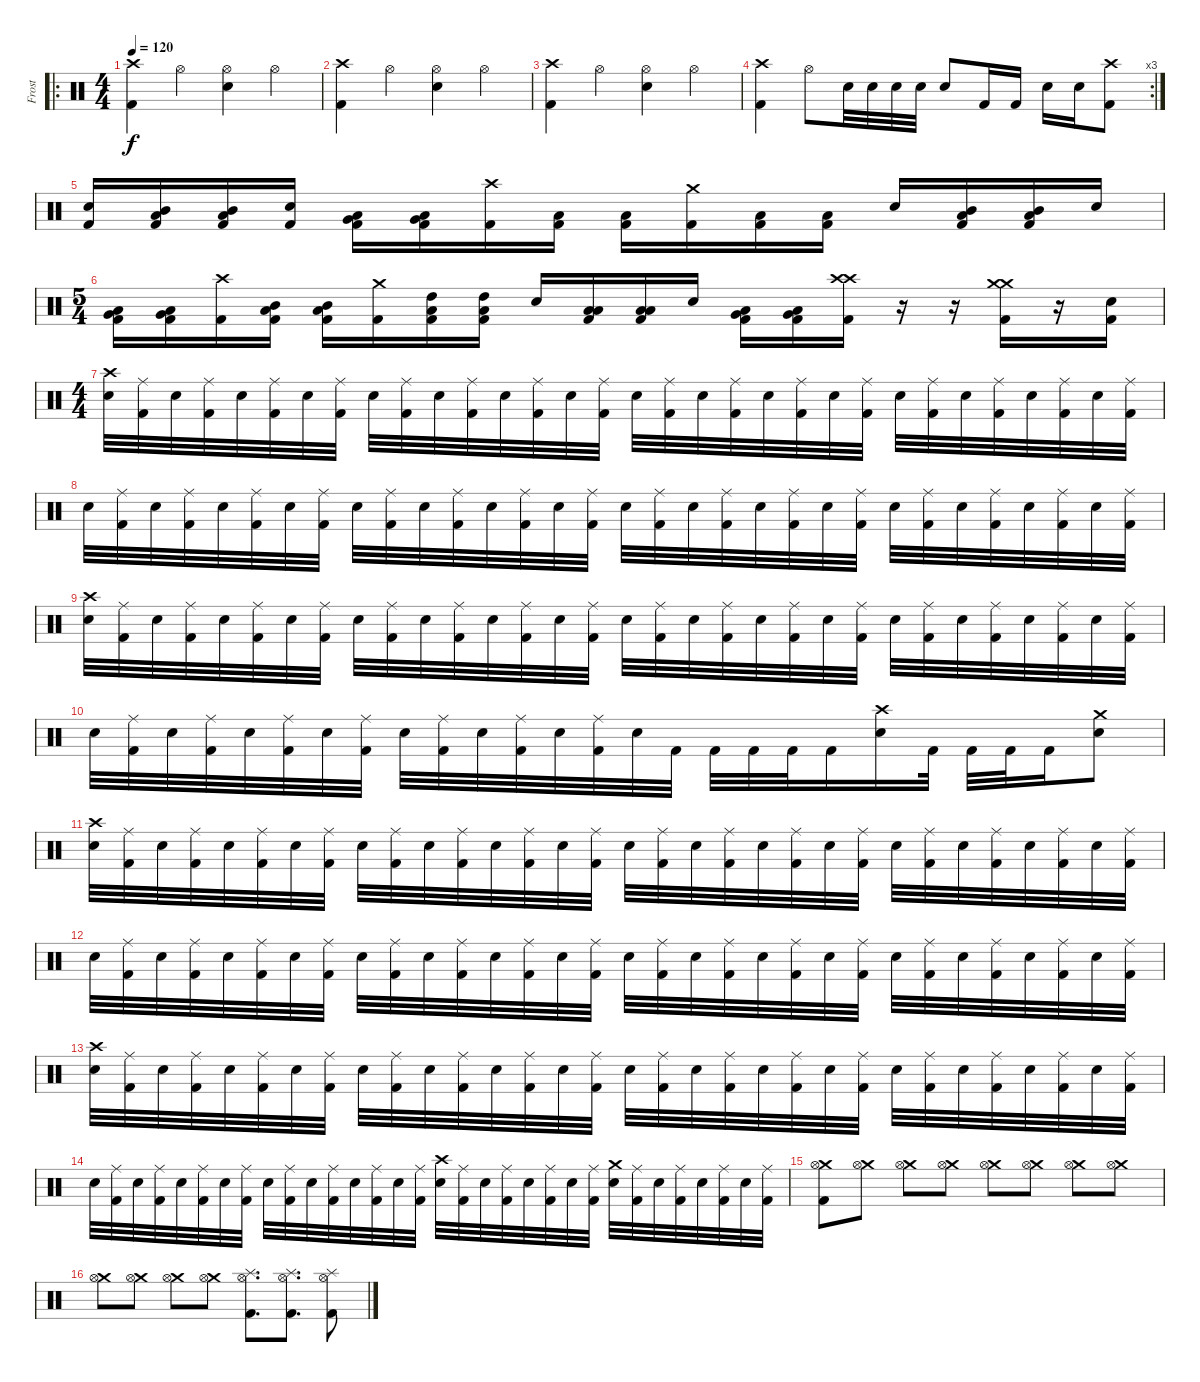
\track ("Frost" "Frost") {instrument percussion}
\staff {score}
\articulation defaults
\ro
\ts (4 4)
\tempo 120
\clef neutral
\ks c
("Crash high (hit)" "Kick (hit) 2").4{dy f} "Hi-Hat (open)".4 ("Hi-Hat (open)" "Snare (hit) 2").4 "Hi-Hat (open)".4 |
("Crash high (hit)" "Kick (hit) 2").4 "Hi-Hat (open)".4 ("Hi-Hat (open)" "Snare (hit) 2").4 "Hi-Hat (open)".4 |
("Crash high (hit)" "Kick (hit) 2").4 "Hi-Hat (open)".4 ("Hi-Hat (open)" "Snare (hit) 2").4 "Hi-Hat (open)".4 |
\rc 3
("Crash high (hit)" "Kick (hit) 2").4 "Hi-Hat (open)".8 "Snare (hit) 2".32 "Snare (hit) 2".32 "Snare (hit) 2".32 "Snare (hit) 2".32 "Snare (hit) 2".8 "Kick (hit) 2".16 "Kick (hit) 2".16 "Snare (hit) 2".16 "Snare (hit) 2".16 ("Crash high (hit)" "Kick (hit) 2").8 |
("Snare (hit) 2" "Kick (hit) 2").16 ("Mid Tom (hit)" "Low Tom (hit)" "Kick (hit) 2").16 ("Mid Tom (hit)" "Low Tom (hit)" "Kick (hit) 2").16 ("Snare (hit) 2" "Kick (hit) 2").16 ("Very Low Tom (hit)" "Low Tom (hit)" "Kick (hit) 2").16 ("Very Low Tom (hit)" "Low Tom (hit)" "Kick (hit) 2").16 ("Crash high (hit)" "Kick (hit) 2").16 ("Low Tom (hit)" "Kick (hit) 2").16 ("Low Tom (hit)" "Kick (hit) 2").16 ("Crash medium (hit)" "Kick (hit) 2").16 ("Low Tom (hit)" "Kick (hit) 2").16 ("Low Tom (hit)" "Kick (hit) 2").16 "Snare (hit) 2".16 ("Mid Tom (hit)" "Low Tom (hit)" "Kick (hit) 2").16 ("Mid Tom (hit)" "Low Tom (hit)" "Kick (hit) 2").16 "Snare (hit) 2".16 |
\ts (5 4)
("Low Tom (hit)" "Very Low Tom (hit)" "Kick (hit) 2").16 ("Low Tom (hit)" "Very Low Tom (hit)" "Kick (hit) 2").16 ("Crash high (hit)" "Kick (hit) 2").16 ("Mid Tom (hit)" "Low Tom (hit)" "Kick (hit) 2").16 ("Mid Tom (hit)" "Low Tom (hit)" "Kick (hit) 2").16 ("Crash medium (hit)" "Kick (hit) 2").16 ("High Tom (hit)" "Low Tom (hit)" "Kick (hit) 2").16 ("High Tom (hit)" "Low Tom (hit)" "Kick (hit) 2").16 "Snare (hit) 2".16 ("Low Floor Tom (hit)" "Low Tom (hit)" "Kick (hit) 2").16 ("Low Floor Tom (hit)" "Low Tom (hit)" "Kick (hit) 2").16 "Snare (hit) 2".16 ("Very Low Tom (hit)" "Low Tom (hit)" "Kick (hit) 2").16 ("Very Low Tom (hit)" "Low Tom (hit)" "Kick (hit) 2").16 ("Crash high (hit)" "Crash high (hit)" "Kick (hit) 2").16 r.16 r.16 ("Crash medium (hit)" "Crash medium (hit)" "Kick (hit) 2").16 r.16 ("Snare (hit) 2" "Kick (hit) 2").16 |
\ts (4 4)
("Crash high (hit)" "Snare (hit) 2").32 ("Ride (middle)" "Kick (hit) 2").32 "Snare (hit) 2".32 ("Ride (middle)" "Kick (hit) 2").32 "Snare (hit) 2".32 ("Ride (middle)" "Kick (hit) 2").32 "Snare (hit) 2".32 ("Ride (middle)" "Kick (hit) 2").32 "Snare (hit) 2".32 ("Ride (middle)" "Kick (hit) 2").32 "Snare (hit) 2".32 ("Ride (middle)" "Kick (hit) 2").32 "Snare (hit) 2".32 ("Ride (middle)" "Kick (hit) 2").32 "Snare (hit) 2".32 ("Ride (middle)" "Kick (hit) 2").32 "Snare (hit) 2".32 ("Ride (middle)" "Kick (hit) 2").32 "Snare (hit) 2".32 ("Ride (middle)" "Kick (hit) 2").32 "Snare (hit) 2".32 ("Ride (middle)" "Kick (hit) 2").32 "Snare (hit) 2".32 ("Ride (middle)" "Kick (hit) 2").32 "Snare (hit) 2".32 ("Ride (middle)" "Kick (hit) 2").32 "Snare (hit) 2".32 ("Ride (middle)" "Kick (hit) 2").32 "Snare (hit) 2".32 ("Ride (middle)" "Kick (hit) 2").32 "Snare (hit) 2".32 ("Ride (middle)" "Kick (hit) 2").32 |
"Snare (hit) 2".32 ("Ride (middle)" "Kick (hit) 2").32 "Snare (hit) 2".32 ("Ride (middle)" "Kick (hit) 2").32 "Snare (hit) 2".32 ("Ride (middle)" "Kick (hit) 2").32 "Snare (hit) 2".32 ("Ride (middle)" "Kick (hit) 2").32 "Snare (hit) 2".32 ("Ride (middle)" "Kick (hit) 2").32 "Snare (hit) 2".32 ("Ride (middle)" "Kick (hit) 2").32 "Snare (hit) 2".32 ("Ride (middle)" "Kick (hit) 2").32 "Snare (hit) 2".32 ("Ride (middle)" "Kick (hit) 2").32 "Snare (hit) 2".32 ("Ride (middle)" "Kick (hit) 2").32 "Snare (hit) 2".32 ("Ride (middle)" "Kick (hit) 2").32 "Snare (hit) 2".32 ("Ride (middle)" "Kick (hit) 2").32 "Snare (hit) 2".32 ("Ride (middle)" "Kick (hit) 2").32 "Snare (hit) 2".32 ("Ride (middle)" "Kick (hit) 2").32 "Snare (hit) 2".32 ("Ride (middle)" "Kick (hit) 2").32 "Snare (hit) 2".32 ("Ride (middle)" "Kick (hit) 2").32 "Snare (hit) 2".32 ("Ride (middle)" "Kick (hit) 2").32 |
("Crash high (hit)" "Snare (hit) 2").32 ("Ride (middle)" "Kick (hit) 2").32 "Snare (hit) 2".32 ("Ride (middle)" "Kick (hit) 2").32 "Snare (hit) 2".32 ("Ride (middle)" "Kick (hit) 2").32 "Snare (hit) 2".32 ("Ride (middle)" "Kick (hit) 2").32 "Snare (hit) 2".32 ("Ride (middle)" "Kick (hit) 2").32 "Snare (hit) 2".32 ("Ride (middle)" "Kick (hit) 2").32 "Snare (hit) 2".32 ("Ride (middle)" "Kick (hit) 2").32 "Snare (hit) 2".32 ("Ride (middle)" "Kick (hit) 2").32 "Snare (hit) 2".32 ("Ride (middle)" "Kick (hit) 2").32 "Snare (hit) 2".32 ("Ride (middle)" "Kick (hit) 2").32 "Snare (hit) 2".32 ("Ride (middle)" "Kick (hit) 2").32 "Snare (hit) 2".32 ("Ride (middle)" "Kick (hit) 2").32 "Snare (hit) 2".32 ("Ride (middle)" "Kick (hit) 2").32 "Snare (hit) 2".32 ("Ride (middle)" "Kick (hit) 2").32 "Snare (hit) 2".32 ("Ride (middle)" "Kick (hit) 2").32 "Snare (hit) 2".32 ("Ride (middle)" "Kick (hit) 2").32 |
"Snare (hit) 2".32 ("Ride (middle)" "Kick (hit) 2").32 "Snare (hit) 2".32 ("Ride (middle)" "Kick (hit) 2").32 "Snare (hit) 2".32 ("Ride (middle)" "Kick (hit) 2").32 "Snare (hit) 2".32 ("Ride (middle)" "Kick (hit) 2").32 "Snare (hit) 2".32 ("Ride (middle)" "Kick (hit) 2").32 "Snare (hit) 2".32 ("Ride (middle)" "Kick (hit) 2").32 "Snare (hit) 2".32 ("Ride (middle)" "Kick (hit) 2").32 "Snare (hit) 2".32 "Kick (hit) 2".32 "Kick (hit) 2".32 "Kick (hit) 2".32 "Kick (hit) 2".32 "Kick (hit) 2".16 ("Crash high (hit)" "Snare (hit) 2").16 "Kick (hit) 2".32 "Kick (hit) 2".32 "Kick (hit) 2".32 "Kick (hit) 2".16 ("Crash medium (hit)" "Snare (hit) 2").8 |
("Crash high (hit)" "Snare (hit) 2").32 ("Ride (middle)" "Kick (hit) 2").32 "Snare (hit) 2".32 ("Ride (middle)" "Kick (hit) 2").32 "Snare (hit) 2".32 ("Ride (middle)" "Kick (hit) 2").32 "Snare (hit) 2".32 ("Ride (middle)" "Kick (hit) 2").32 "Snare (hit) 2".32 ("Ride (middle)" "Kick (hit) 2").32 "Snare (hit) 2".32 ("Ride (middle)" "Kick (hit) 2").32 "Snare (hit) 2".32 ("Ride (middle)" "Kick (hit) 2").32 "Snare (hit) 2".32 ("Ride (middle)" "Kick (hit) 2").32 "Snare (hit) 2".32 ("Ride (middle)" "Kick (hit) 2").32 "Snare (hit) 2".32 ("Ride (middle)" "Kick (hit) 2").32 "Snare (hit) 2".32 ("Ride (middle)" "Kick (hit) 2").32 "Snare (hit) 2".32 ("Ride (middle)" "Kick (hit) 2").32 "Snare (hit) 2".32 ("Ride (middle)" "Kick (hit) 2").32 "Snare (hit) 2".32 ("Ride (middle)" "Kick (hit) 2").32 "Snare (hit) 2".32 ("Ride (middle)" "Kick (hit) 2").32 "Snare (hit) 2".32 ("Ride (middle)" "Kick (hit) 2").32 |
"Snare (hit) 2".32 ("Ride (middle)" "Kick (hit) 2").32 "Snare (hit) 2".32 ("Ride (middle)" "Kick (hit) 2").32 "Snare (hit) 2".32 ("Ride (middle)" "Kick (hit) 2").32 "Snare (hit) 2".32 ("Ride (middle)" "Kick (hit) 2").32 "Snare (hit) 2".32 ("Ride (middle)" "Kick (hit) 2").32 "Snare (hit) 2".32 ("Ride (middle)" "Kick (hit) 2").32 "Snare (hit) 2".32 ("Ride (middle)" "Kick (hit) 2").32 "Snare (hit) 2".32 ("Ride (middle)" "Kick (hit) 2").32 "Snare (hit) 2".32 ("Ride (middle)" "Kick (hit) 2").32 "Snare (hit) 2".32 ("Ride (middle)" "Kick (hit) 2").32 "Snare (hit) 2".32 ("Ride (middle)" "Kick (hit) 2").32 "Snare (hit) 2".32 ("Ride (middle)" "Kick (hit) 2").32 "Snare (hit) 2".32 ("Ride (middle)" "Kick (hit) 2").32 "Snare (hit) 2".32 ("Ride (middle)" "Kick (hit) 2").32 "Snare (hit) 2".32 ("Ride (middle)" "Kick (hit) 2").32 "Snare (hit) 2".32 ("Ride (middle)" "Kick (hit) 2").32 |
("Crash high (hit)" "Snare (hit) 2").32 ("Ride (middle)" "Kick (hit) 2").32 "Snare (hit) 2".32 ("Ride (middle)" "Kick (hit) 2").32 "Snare (hit) 2".32 ("Ride (middle)" "Kick (hit) 2").32 "Snare (hit) 2".32 ("Ride (middle)" "Kick (hit) 2").32 "Snare (hit) 2".32 ("Ride (middle)" "Kick (hit) 2").32 "Snare (hit) 2".32 ("Ride (middle)" "Kick (hit) 2").32 "Snare (hit) 2".32 ("Ride (middle)" "Kick (hit) 2").32 "Snare (hit) 2".32 ("Ride (middle)" "Kick (hit) 2").32 "Snare (hit) 2".32 ("Ride (middle)" "Kick (hit) 2").32 "Snare (hit) 2".32 ("Ride (middle)" "Kick (hit) 2").32 "Snare (hit) 2".32 ("Ride (middle)" "Kick (hit) 2").32 "Snare (hit) 2".32 ("Ride (middle)" "Kick (hit) 2").32 "Snare (hit) 2".32 ("Ride (middle)" "Kick (hit) 2").32 "Snare (hit) 2".32 ("Ride (middle)" "Kick (hit) 2").32 "Snare (hit) 2".32 ("Ride (middle)" "Kick (hit) 2").32 "Snare (hit) 2".32 ("Ride (middle)" "Kick (hit) 2").32 |
"Snare (hit) 2".32 ("Ride (middle)" "Kick (hit) 2").32 "Snare (hit) 2".32 ("Ride (middle)" "Kick (hit) 2").32 "Snare (hit) 2".32 ("Ride (middle)" "Kick (hit) 2").32 "Snare (hit) 2".32 ("Ride (middle)" "Kick (hit) 2").32 "Snare (hit) 2".32 ("Ride (middle)" "Kick (hit) 2").32 "Snare (hit) 2".32 ("Ride (middle)" "Kick (hit) 2").32 "Snare (hit) 2".32 ("Ride (middle)" "Kick (hit) 2").32 "Snare (hit) 2".32 ("Ride (middle)" "Kick (hit) 2").32 ("Crash high (hit)" "Snare (hit) 2").32 ("Ride (middle)" "Kick (hit) 2").32 "Snare (hit) 2".32 ("Ride (middle)" "Kick (hit) 2").32 "Snare (hit) 2".32 ("Ride (middle)" "Kick (hit) 2").32 "Snare (hit) 2".32 ("Ride (middle)" "Kick (hit) 2").32 ("Crash medium (hit)" "Snare (hit) 2").32 ("Ride (middle)" "Kick (hit) 2").32 "Snare (hit) 2".32 ("Ride (middle)" "Kick (hit) 2").32 "Snare (hit) 2".32 ("Ride (middle)" "Kick (hit) 2").32 "Snare (hit) 2".32 ("Ride (middle)" "Kick (hit) 2").32 |
("Crash medium (hit)" "Hi-Hat (open)" "Kick (hit) 2").8 ("Crash medium (hit)" "Hi-Hat (open)").8 ("Crash medium (hit)" "Hi-Hat (open)").8 ("Crash medium (hit)" "Hi-Hat (open)").8 ("Crash medium (hit)" "Hi-Hat (open)").8 ("Crash medium (hit)" "Hi-Hat (open)").8 ("Crash medium (hit)" "Hi-Hat (open)").8 ("Crash medium (hit)" "Hi-Hat (open)").8 |
("Crash medium (hit)" "Hi-Hat (open)").8 ("Crash medium (hit)" "Hi-Hat (open)").8 ("Crash medium (hit)" "Hi-Hat (open)").8 ("Crash medium (hit)" "Hi-Hat (open)").8 ("Splash (hit)" "Hi-Hat (open)" "Kick (hit) 2").8{d} ("Splash (hit)" "Hi-Hat (open)" "Kick (hit) 2").8{d} ("Splash (hit)" "Hi-Hat (open)" "Kick (hit) 2").8
